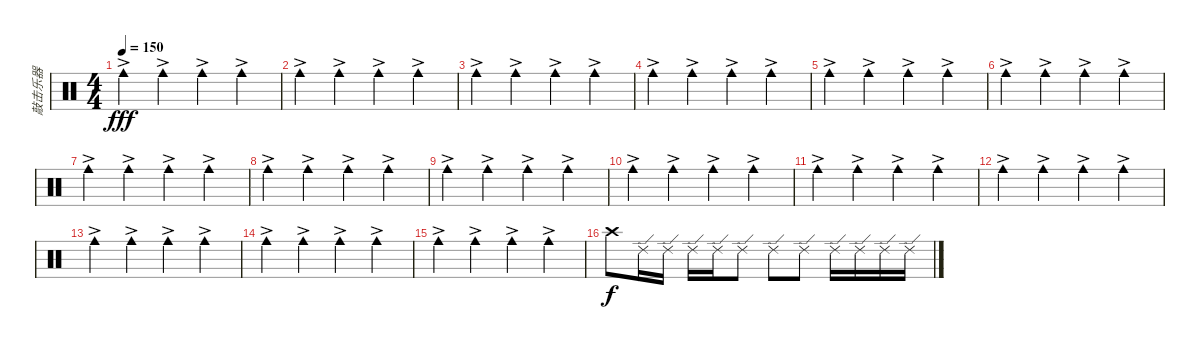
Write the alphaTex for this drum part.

\track ("敲击乐器" "敲击乐器") {instrument percussion}
\staff {score}
\articulation defaults
\ts (4 4)
\tempo 150
\clef neutral
\ks c "Cowbell medium (hit)"{ac}.4{dy fff} "Cowbell medium (hit)"{ac}.4 "Cowbell medium (hit)"{ac}.4 "Cowbell medium (hit)"{ac}.4
|
"Cowbell medium (hit)"{ac}.4 "Cowbell medium (hit)"{ac}.4 "Cowbell medium (hit)"{ac}.4 "Cowbell medium (hit)"{ac}.4 |
"Cowbell medium (hit)"{ac}.4 "Cowbell medium (hit)"{ac}.4 "Cowbell medium (hit)"{ac}.4 "Cowbell medium (hit)"{ac}.4 |
"Cowbell medium (hit)"{ac}.4 "Cowbell medium (hit)"{ac}.4 "Cowbell medium (hit)"{ac}.4 "Cowbell medium (hit)"{ac}.4 |
"Cowbell medium (hit)"{ac}.4 "Cowbell medium (hit)"{ac}.4 "Cowbell medium (hit)"{ac}.4 "Cowbell medium (hit)"{ac}.4 |
"Cowbell medium (hit)"{ac}.4 "Cowbell medium (hit)"{ac}.4 "Cowbell medium (hit)"{ac}.4 "Cowbell medium (hit)"{ac}.4 |
"Cowbell medium (hit)"{ac}.4 "Cowbell medium (hit)"{ac}.4 "Cowbell medium (hit)"{ac}.4 "Cowbell medium (hit)"{ac}.4 |
"Cowbell medium (hit)"{ac}.4 "Cowbell medium (hit)"{ac}.4 "Cowbell medium (hit)"{ac}.4 "Cowbell medium (hit)"{ac}.4 |
"Cowbell medium (hit)"{ac}.4 "Cowbell medium (hit)"{ac}.4 "Cowbell medium (hit)"{ac}.4 "Cowbell medium (hit)"{ac}.4 |
"Cowbell medium (hit)"{ac}.4 "Cowbell medium (hit)"{ac}.4 "Cowbell medium (hit)"{ac}.4 "Cowbell medium (hit)"{ac}.4 |
"Cowbell medium (hit)"{ac}.4 "Cowbell medium (hit)"{ac}.4 "Cowbell medium (hit)"{ac}.4 "Cowbell medium (hit)"{ac}.4 |
"Cowbell medium (hit)"{ac}.4 "Cowbell medium (hit)"{ac}.4 "Cowbell medium (hit)"{ac}.4 "Cowbell medium (hit)"{ac}.4 |
"Cowbell medium (hit)"{ac}.4 "Cowbell medium (hit)"{ac}.4 "Cowbell medium (hit)"{ac}.4 "Cowbell medium (hit)"{ac}.4 |
"Cowbell medium (hit)"{ac}.4 "Cowbell medium (hit)"{ac}.4 "Cowbell medium (hit)"{ac}.4 "Cowbell medium (hit)"{ac}.4 |
"Cowbell medium (hit)"{ac}.4 "Cowbell medium (hit)"{ac}.4 "Cowbell medium (hit)"{ac}.4 "Cowbell medium (hit)"{ac}.4 |
"Crash high (hit)".8{dy f} "Ride (edge) 2".16 "Ride (edge) 2".16 "Ride (edge) 2".16 "Ride (edge) 2".16 "Ride (edge) 2".8 "Ride (edge) 2".8 "Ride (edge) 2".8 "Ride (edge) 2".16 "Ride (edge) 2".16 "Ride (edge) 2".16 "Ride (edge) 2".16
